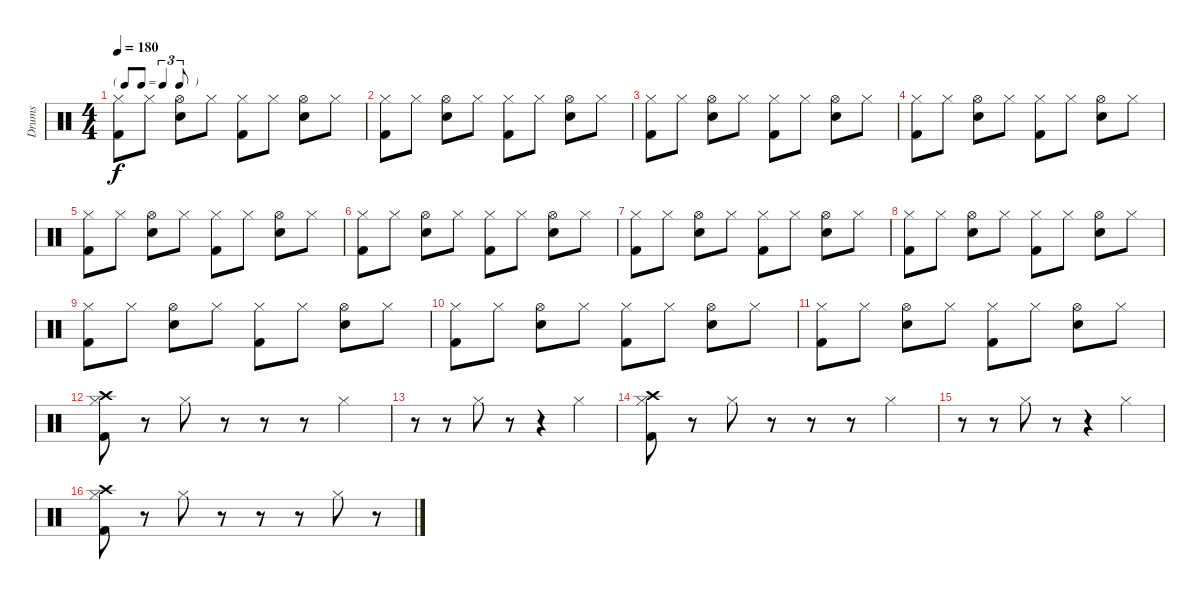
\track ("Drums" "Drums") {instrument percussion}
\staff {score}
\articulation defaults
\ts (4 4)
\tf triplet8th
\tempo 180
\clef neutral
\ks c
("Hi-Hat (closed)" "Kick (hit) 2").8{dy f} "Hi-Hat (closed)".8 ("Hi-Hat (open)" "Snare (hit) 2").8 "Hi-Hat (closed)".8 ("Hi-Hat (closed)" "Kick (hit) 2").8 "Hi-Hat (closed)".8 ("Hi-Hat (open)" "Snare (hit) 2").8 "Hi-Hat (closed)".8 |
("Hi-Hat (closed)" "Kick (hit) 2").8 "Hi-Hat (closed)".8 ("Hi-Hat (open)" "Snare (hit) 2").8 "Hi-Hat (closed)".8 ("Hi-Hat (closed)" "Kick (hit) 2").8 "Hi-Hat (closed)".8 ("Hi-Hat (open)" "Snare (hit) 2").8 "Hi-Hat (closed)".8 |
("Hi-Hat (closed)" "Kick (hit) 2").8 "Hi-Hat (closed)".8 ("Hi-Hat (open)" "Snare (hit) 2").8 "Hi-Hat (closed)".8 ("Hi-Hat (closed)" "Kick (hit) 2").8 "Hi-Hat (closed)".8 ("Hi-Hat (open)" "Snare (hit) 2").8 "Hi-Hat (closed)".8 |
("Hi-Hat (closed)" "Kick (hit) 2").8 "Hi-Hat (closed)".8 ("Hi-Hat (open)" "Snare (hit) 2").8 "Hi-Hat (closed)".8 ("Hi-Hat (closed)" "Kick (hit) 2").8 "Hi-Hat (closed)".8 ("Hi-Hat (open)" "Snare (hit) 2").8 "Hi-Hat (closed)".8 |
("Hi-Hat (closed)" "Kick (hit) 2").8 "Hi-Hat (closed)".8 ("Hi-Hat (open)" "Snare (hit) 2").8 "Hi-Hat (closed)".8 ("Hi-Hat (closed)" "Kick (hit) 2").8 "Hi-Hat (closed)".8 ("Hi-Hat (open)" "Snare (hit) 2").8 "Hi-Hat (closed)".8 |
("Hi-Hat (closed)" "Kick (hit) 2").8 "Hi-Hat (closed)".8 ("Hi-Hat (open)" "Snare (hit) 2").8 "Hi-Hat (closed)".8 ("Hi-Hat (closed)" "Kick (hit) 2").8 "Hi-Hat (closed)".8 ("Hi-Hat (open)" "Snare (hit) 2").8 "Hi-Hat (closed)".8 |
("Hi-Hat (closed)" "Kick (hit) 2").8 "Hi-Hat (closed)".8 ("Hi-Hat (open)" "Snare (hit) 2").8 "Hi-Hat (closed)".8 ("Hi-Hat (closed)" "Kick (hit) 2").8 "Hi-Hat (closed)".8 ("Hi-Hat (open)" "Snare (hit) 2").8 "Hi-Hat (closed)".8 |
("Hi-Hat (closed)" "Kick (hit) 2").8 "Hi-Hat (closed)".8 ("Hi-Hat (open)" "Snare (hit) 2").8 "Hi-Hat (closed)".8 ("Hi-Hat (closed)" "Kick (hit) 2").8 "Hi-Hat (closed)".8 ("Hi-Hat (open)" "Snare (hit) 2").8 "Hi-Hat (closed)".8 |
("Hi-Hat (closed)" "Kick (hit) 2").8 "Hi-Hat (closed)".8 ("Hi-Hat (open)" "Snare (hit) 2").8 "Hi-Hat (closed)".8 ("Hi-Hat (closed)" "Kick (hit) 2").8 "Hi-Hat (closed)".8 ("Hi-Hat (open)" "Snare (hit) 2").8 "Hi-Hat (closed)".8 |
("Hi-Hat (closed)" "Kick (hit) 2").8 "Hi-Hat (closed)".8 ("Hi-Hat (open)" "Snare (hit) 2").8 "Hi-Hat (closed)".8 ("Hi-Hat (closed)" "Kick (hit) 2").8 "Hi-Hat (closed)".8 ("Hi-Hat (open)" "Snare (hit) 2").8 "Hi-Hat (closed)".8 |
("Hi-Hat (closed)" "Kick (hit) 2").8 "Hi-Hat (closed)".8 ("Hi-Hat (open)" "Snare (hit) 2").8 "Hi-Hat (closed)".8 ("Hi-Hat (closed)" "Kick (hit) 2").8 "Hi-Hat (closed)".8 ("Hi-Hat (open)" "Snare (hit) 2").8 "Hi-Hat (closed)".8 |
("Crash high (hit)" "Kick (hit) 2" "Hi-Hat (closed)").8 r.8 "Hi-Hat (closed)".8 r.8 r.8 r.8 "Hi-Hat (closed)".4 |
r.8 r.8 "Hi-Hat (closed)".8 r.8 r.4 "Hi-Hat (closed)".4 |
("Crash high (hit)" "Kick (hit) 2" "Hi-Hat (closed)").8 r.8 "Hi-Hat (closed)".8 r.8 r.8 r.8 "Hi-Hat (closed)".4 |
r.8 r.8 "Hi-Hat (closed)".8 r.8 r.4 "Hi-Hat (closed)".4 |
("Crash high (hit)" "Kick (hit) 2" "Hi-Hat (closed)").8 r.8 "Hi-Hat (closed)".8 r.8 r.8 r.8 "Hi-Hat (closed)".8 r.8
